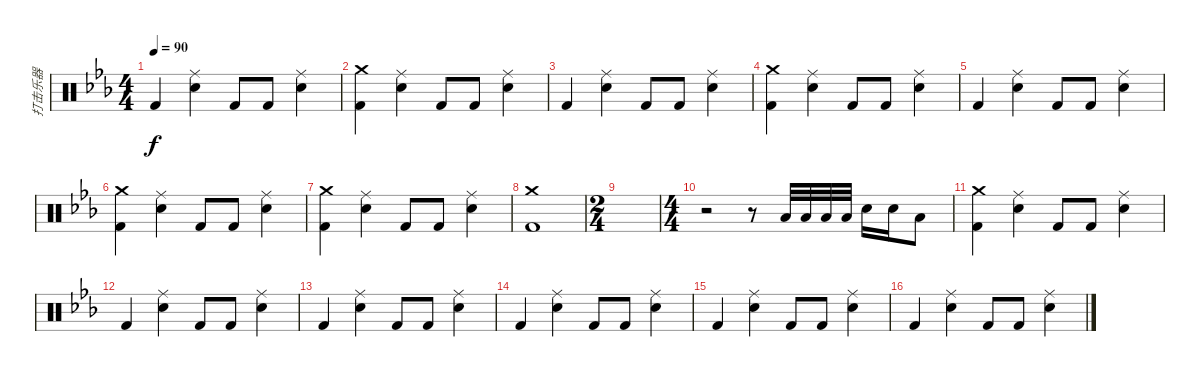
\track ("打击乐器" "打击乐器") {instrument percussion}
\staff {score}
\articulation defaults
\ts (4 4)
\tempo 90
\clef neutral
\ks eb "Kick (hit) 2".4{dy f}
("Ride (middle)" "Snare (hit) 2").4 "Kick (hit) 2".8 "Kick (hit) 2".8 ("Ride (middle)" "Snare (hit) 2").4 |
("Crash medium (hit)" "Kick (hit) 2").4 ("Ride (middle)" "Snare (hit) 2").4 "Kick (hit) 2".8 "Kick (hit) 2".8 ("Ride (middle)" "Snare (hit) 2").4 |
"Kick (hit) 2".4 ("Ride (middle)" "Snare (hit) 2").4 "Kick (hit) 2".8 "Kick (hit) 2".8 ("Ride (middle)" "Snare (hit) 2").4 |
("Crash medium (hit)" "Kick (hit) 2").4 ("Ride (middle)" "Snare (hit) 2").4 "Kick (hit) 2".8 "Kick (hit) 2".8 ("Ride (middle)" "Snare (hit) 2").4 |
"Kick (hit) 2".4 ("Ride (middle)" "Snare (hit) 2").4 "Kick (hit) 2".8 "Kick (hit) 2".8 ("Ride (middle)" "Snare (hit) 2").4 |
("Crash medium (hit)" "Kick (hit) 2").4 ("Ride (middle)" "Snare (hit) 2").4 "Kick (hit) 2".8 "Kick (hit) 2".8 ("Ride (middle)" "Electric Snare (hit)").4 |
("Crash medium (hit)" "Kick (hit) 2").4 ("Ride (middle)" "Snare (hit) 2").4 "Kick (hit) 2".8 "Kick (hit) 2".8 ("Ride (middle)" "Snare (hit) 2").4 |
("Crash medium (hit)" "Kick (hit) 2").1 |
\ts (2 4)
|
\ts (4 4)
r.2 r.8 "Low Tom (hit)".32 "Low Tom (hit)".32 "Low Tom (hit)".32{volume 12} "Low Tom (hit)".32 "Electric Snare (hit)".16 "Electric Snare (hit)".16 "Low Tom (hit)".8 |
("Crash medium (hit)" "Kick (hit) 2").4 ("Ride (middle)" "Electric Snare (hit)").4{volume 11} "Kick (hit) 2".8 "Kick (hit) 2".8 ("Ride (middle)" "Electric Snare (hit)").4 |
"Kick (hit) 2".4 ("Ride (middle)" "Electric Snare (hit)").4 "Kick (hit) 2".8 "Kick (hit) 2".8 ("Ride (middle)" "Electric Snare (hit)").4 |
"Kick (hit) 2".4 ("Ride (middle)" "Electric Snare (hit)").4 "Kick (hit) 2".8 "Kick (hit) 2".8 ("Ride (middle)" "Electric Snare (hit)").4 |
"Kick (hit) 2".4 ("Ride (middle)" "Electric Snare (hit)").4 "Kick (hit) 2".8 "Kick (hit) 2".8 ("Ride (middle)" "Electric Snare (hit)").4 |
"Kick (hit) 2".4 ("Ride (middle)" "Electric Snare (hit)").4 "Kick (hit) 2".8 "Kick (hit) 2".8 ("Ride (middle)" "Electric Snare (hit)").4 |
"Kick (hit) 2".4 ("Ride (middle)" "Electric Snare (hit)").4 "Kick (hit) 2".8 "Kick (hit) 2".8 ("Ride (middle)" "Electric Snare (hit)").4
